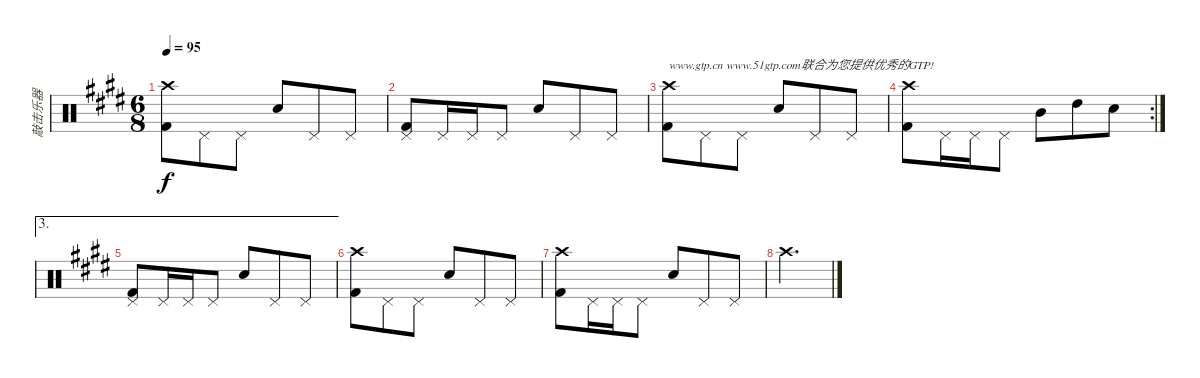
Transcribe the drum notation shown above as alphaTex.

\track ("敲击乐器" "敲击乐器") {instrument percussion}
\staff {score}
\articulation defaults
\ts (6 8)
\tempo 95
\clef neutral
\ks e
("Crash high (hit)" "Kick (hit) 2").8{dy f} "Pedal Hi-Hat (hit)".8 "Pedal Hi-Hat (hit)".8 "Snare (hit) 2".8 "Pedal Hi-Hat (hit)".8 "Pedal Hi-Hat (hit)".8 |
("Pedal Hi-Hat (hit)" "Kick (hit) 2").8 "Pedal Hi-Hat (hit)".16 "Pedal Hi-Hat (hit)".16 "Pedal Hi-Hat (hit)".8 "Snare (hit) 2".8 "Pedal Hi-Hat (hit)".8 "Pedal Hi-Hat (hit)".8 |
("Crash high (hit)" "Kick (hit) 2").8{txt "www.gtp.cn www.51gtp.com联合为您提供优秀的GTP!"} "Pedal Hi-Hat (hit)".8 "Pedal Hi-Hat (hit)".8 "Snare (hit) 2".8 "Pedal Hi-Hat (hit)".8 "Pedal Hi-Hat (hit)".8 |
\rc 2
("Crash high (hit)" "Kick (hit) 2").8 "Pedal Hi-Hat (hit)".16 "Pedal Hi-Hat (hit)".16 "Pedal Hi-Hat (hit)".8 "Mid Tom (hit)".8 "High Tom (hit)".8 "Snare (hit) 2".8 |
\ae 3
("Pedal Hi-Hat (hit)" "Kick (hit) 2").8 "Pedal Hi-Hat (hit)".16 "Pedal Hi-Hat (hit)".16 "Pedal Hi-Hat (hit)".8 "Snare (hit) 2".8 "Pedal Hi-Hat (hit)".8 "Pedal Hi-Hat (hit)".8 |
("Crash high (hit)" "Kick (hit) 2").8 "Pedal Hi-Hat (hit)".8 "Pedal Hi-Hat (hit)".8 "Snare (hit) 2".8 "Pedal Hi-Hat (hit)".8 "Pedal Hi-Hat (hit)".8 |
("Crash high (hit)" "Kick (hit) 2").8 "Pedal Hi-Hat (hit)".16 "Pedal Hi-Hat (hit)".16 "Pedal Hi-Hat (hit)".8 "Snare (hit) 2".8 "Pedal Hi-Hat (hit)".8 "Pedal Hi-Hat (hit)".8 |
"Crash high (hit)".2{d}
